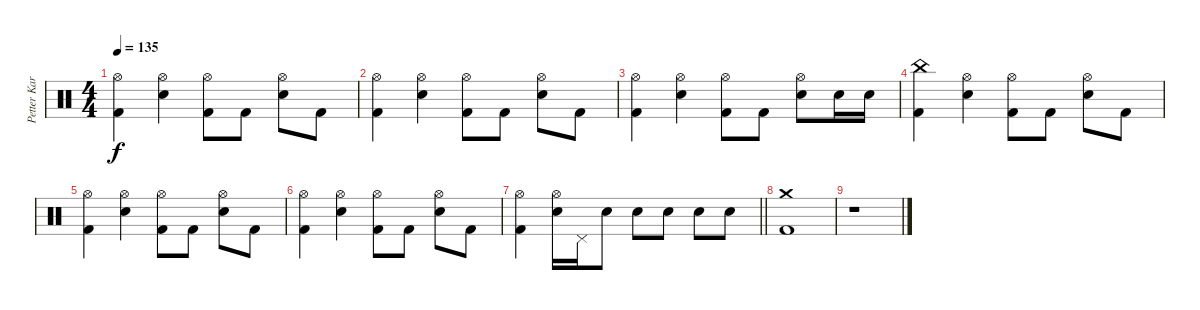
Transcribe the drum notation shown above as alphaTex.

\track ("Petter Karlsson" "Petter Kar") {instrument percussion}
\staff {score}
\articulation defaults
\ts (4 4)
\tempo 135
\clef neutral
\ks c
("Hi-Hat (open)" "Kick (hit) 2").4{dy f} ("Hi-Hat (open)" "Electric Snare (hit)").4 ("Hi-Hat (open)" "Kick (hit) 2").8 "Kick (hit) 2".8 ("Hi-Hat (open)" "Electric Snare (hit)").8 "Kick (hit) 2".8 |
("Hi-Hat (open)" "Kick (hit) 2").4 ("Hi-Hat (open)" "Electric Snare (hit)").4 ("Hi-Hat (open)" "Kick (hit) 2").8 "Kick (hit) 2".8 ("Hi-Hat (open)" "Electric Snare (hit)").8 "Kick (hit) 2".8 |
("Hi-Hat (open)" "Kick (hit) 2").4 ("Hi-Hat (open)" "Electric Snare (hit)").4 ("Hi-Hat (open)" "Kick (hit) 2").8 "Kick (hit) 2".8 ("Hi-Hat (open)" "Electric Snare (hit)").8 "Electric Snare (hit)".16 "Electric Snare (hit)".16 |
("China (hit)" "Kick (hit) 2").4 ("Hi-Hat (open)" "Electric Snare (hit)").4 ("Hi-Hat (open)" "Kick (hit) 2").8 "Kick (hit) 2".8 ("Hi-Hat (open)" "Electric Snare (hit)").8 "Kick (hit) 2".8 |
("Hi-Hat (open)" "Kick (hit) 2").4 ("Hi-Hat (open)" "Electric Snare (hit)").4 ("Hi-Hat (open)" "Kick (hit) 2").8 "Kick (hit) 2".8 ("Hi-Hat (open)" "Electric Snare (hit)").8 "Kick (hit) 2".8 |
("Hi-Hat (open)" "Kick (hit) 2").4 ("Hi-Hat (open)" "Electric Snare (hit)").4 ("Hi-Hat (open)" "Kick (hit) 2").8 "Kick (hit) 2".8 ("Hi-Hat (open)" "Electric Snare (hit)").8 "Kick (hit) 2".8 |
\barLineRight lightlight
("Hi-Hat (open)" "Kick (hit) 2").4 ("Hi-Hat (open)" "Electric Snare (hit)").16 "Pedal Hi-Hat (hit)".16 "Electric Snare (hit)".8 "Electric Snare (hit)".8 "Electric Snare (hit)".8 "Electric Snare (hit)".8 "Electric Snare (hit)".8 |
("Crash medium (hit)" "Kick (hit) 2").1 |
r.1
